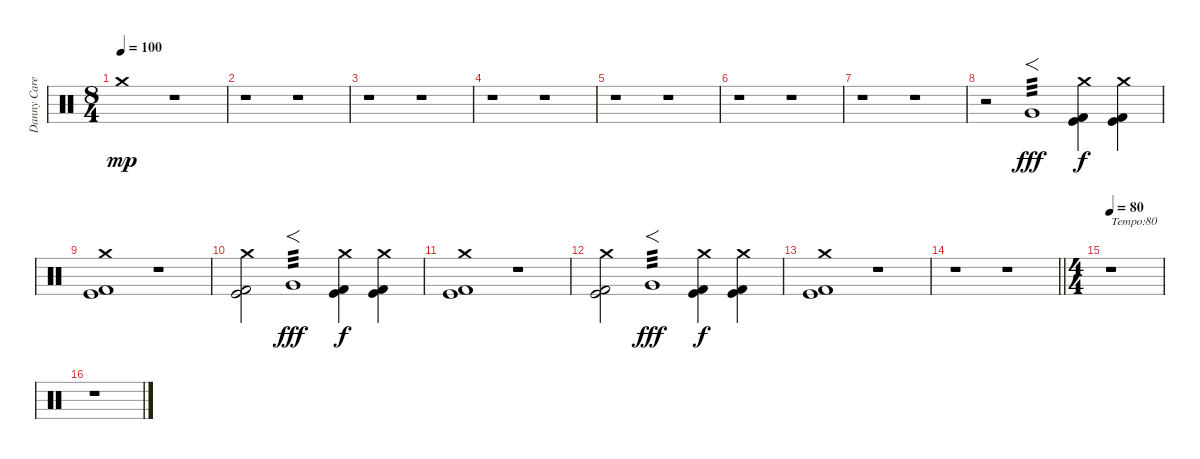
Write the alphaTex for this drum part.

\track ("Danny Carey" "Danny Care") {instrument percussion}
\staff {score}
\articulation defaults
\ts (8 4)
\tempo 100
\clef neutral
\ks c "Crash medium (hit)".1{dy mp}
r.1 |
r.1 r.1 |
r.1 r.1 |
r.1 r.1 |
r.1 r.1 |
r.1 r.1 |
r.1 r.1 |
r.2 "Very Low Tom (hit)".1{f tp 3 dy fff} ("Crash medium (hit)" "Kick (hit)" "Kick (hit) 2").4{dy f} ("Crash medium (hit)" "Kick (hit)" "Kick (hit) 2").4 |
("Crash medium (hit)" "Kick (hit)" "Kick (hit) 2").1 r.1 |
("Crash medium (hit)" "Kick (hit)" "Kick (hit) 2").2 "Very Low Tom (hit)".1{f tp 3 dy fff} ("Crash medium (hit)" "Kick (hit)" "Kick (hit) 2").4{dy f} ("Crash medium (hit)" "Kick (hit)" "Kick (hit) 2").4 |
("Crash medium (hit)" "Kick (hit)" "Kick (hit) 2").1 r.1 |
("Crash medium (hit)" "Kick (hit)" "Kick (hit) 2").2 "Very Low Tom (hit)".1{f tp 3 dy fff} ("Crash medium (hit)" "Kick (hit)" "Kick (hit) 2").4{dy f} ("Crash medium (hit)" "Kick (hit)" "Kick (hit) 2").4 |
("Crash medium (hit)" "Kick (hit)" "Kick (hit) 2").1 r.1 |
\barLineRight lightlight
r.1 r.1 |
\ts (4 4)
\tempo 80
r.1{txt "Tempo:80"} |
r.1
